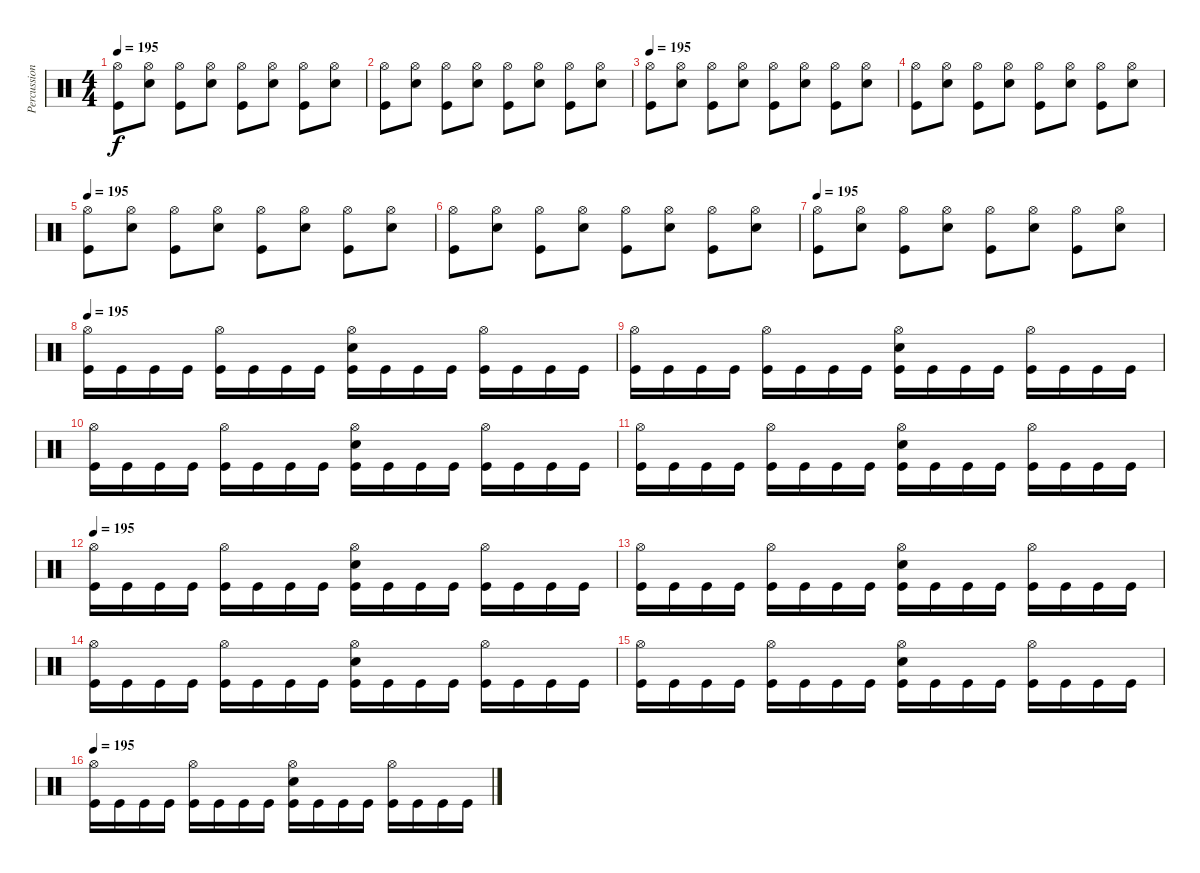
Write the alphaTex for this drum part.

\track ("Percussion" "Percussion") {instrument percussion}
\staff {score}
\articulation defaults
\ts (4 4)
\tempo 195
\clef neutral
\ks c
("Hi-Hat (open)" "Kick (hit)").8{dy f} ("Hi-Hat (open)" "Electric Snare (hit)").8 ("Hi-Hat (open)" "Kick (hit)").8 ("Hi-Hat (open)" "Electric Snare (hit)").8 ("Hi-Hat (open)" "Kick (hit)").8 ("Hi-Hat (open)" "Electric Snare (hit)").8 ("Hi-Hat (open)" "Kick (hit)").8 ("Hi-Hat (open)" "Electric Snare (hit)").8 |
("Hi-Hat (open)" "Kick (hit)").8 ("Hi-Hat (open)" "Electric Snare (hit)").8 ("Hi-Hat (open)" "Kick (hit)").8 ("Hi-Hat (open)" "Electric Snare (hit)").8 ("Hi-Hat (open)" "Kick (hit)").8 ("Hi-Hat (open)" "Electric Snare (hit)").8 ("Hi-Hat (open)" "Kick (hit)").8 ("Hi-Hat (open)" "Electric Snare (hit)").8 |
\tempo 195
("Hi-Hat (open)" "Kick (hit)").8 ("Hi-Hat (open)" "Electric Snare (hit)").8 ("Hi-Hat (open)" "Kick (hit)").8 ("Hi-Hat (open)" "Electric Snare (hit)").8 ("Hi-Hat (open)" "Kick (hit)").8 ("Hi-Hat (open)" "Electric Snare (hit)").8 ("Hi-Hat (open)" "Kick (hit)").8 ("Hi-Hat (open)" "Electric Snare (hit)").8 |
("Hi-Hat (open)" "Kick (hit)").8 ("Hi-Hat (open)" "Electric Snare (hit)").8 ("Hi-Hat (open)" "Kick (hit)").8 ("Hi-Hat (open)" "Electric Snare (hit)").8 ("Hi-Hat (open)" "Kick (hit)").8 ("Hi-Hat (open)" "Electric Snare (hit)").8 ("Hi-Hat (open)" "Kick (hit)").8 ("Hi-Hat (open)" "Electric Snare (hit)").8 |
\tempo 195
("Hi-Hat (open)" "Kick (hit)").8 ("Hi-Hat (open)" "Electric Snare (hit)").8 ("Hi-Hat (open)" "Kick (hit)").8 ("Hi-Hat (open)" "Electric Snare (hit)").8 ("Hi-Hat (open)" "Kick (hit)").8 ("Hi-Hat (open)" "Electric Snare (hit)").8 ("Hi-Hat (open)" "Kick (hit)").8 ("Hi-Hat (open)" "Electric Snare (hit)").8 |
("Hi-Hat (open)" "Kick (hit)").8 ("Hi-Hat (open)" "Electric Snare (hit)").8 ("Hi-Hat (open)" "Kick (hit)").8 ("Hi-Hat (open)" "Electric Snare (hit)").8 ("Hi-Hat (open)" "Kick (hit)").8 ("Hi-Hat (open)" "Electric Snare (hit)").8 ("Hi-Hat (open)" "Kick (hit)").8 ("Hi-Hat (open)" "Electric Snare (hit)").8 |
\tempo 195
("Hi-Hat (open)" "Kick (hit)").8 ("Hi-Hat (open)" "Electric Snare (hit)").8 ("Hi-Hat (open)" "Kick (hit)").8 ("Hi-Hat (open)" "Electric Snare (hit)").8 ("Hi-Hat (open)" "Kick (hit)").8 ("Hi-Hat (open)" "Electric Snare (hit)").8 ("Hi-Hat (open)" "Kick (hit)").8 ("Hi-Hat (open)" "Electric Snare (hit)").8 |
\tempo 195
("Hi-Hat (open)" "Kick (hit)").16 "Kick (hit)".16 "Kick (hit)".16 "Kick (hit)".16 ("Hi-Hat (open)" "Kick (hit)").16 "Kick (hit)".16 "Kick (hit)".16 "Kick (hit)".16 ("Hi-Hat (open)" "Electric Snare (hit)" "Kick (hit)").16 "Kick (hit)".16 "Kick (hit)".16 "Kick (hit)".16 ("Hi-Hat (open)" "Kick (hit)").16 "Kick (hit)".16 "Kick (hit)".16 "Kick (hit)".16 |
("Hi-Hat (open)" "Kick (hit)").16 "Kick (hit)".16 "Kick (hit)".16 "Kick (hit)".16 ("Hi-Hat (open)" "Kick (hit)").16 "Kick (hit)".16 "Kick (hit)".16 "Kick (hit)".16 ("Hi-Hat (open)" "Electric Snare (hit)" "Kick (hit)").16 "Kick (hit)".16 "Kick (hit)".16 "Kick (hit)".16 ("Hi-Hat (open)" "Kick (hit)").16 "Kick (hit)".16 "Kick (hit)".16 "Kick (hit)".16 |
("Hi-Hat (open)" "Kick (hit)").16 "Kick (hit)".16 "Kick (hit)".16 "Kick (hit)".16 ("Hi-Hat (open)" "Kick (hit)").16 "Kick (hit)".16 "Kick (hit)".16 "Kick (hit)".16 ("Hi-Hat (open)" "Electric Snare (hit)" "Kick (hit)").16 "Kick (hit)".16 "Kick (hit)".16 "Kick (hit)".16 ("Hi-Hat (open)" "Kick (hit)").16 "Kick (hit)".16 "Kick (hit)".16 "Kick (hit)".16 |
("Hi-Hat (open)" "Kick (hit)").16 "Kick (hit)".16 "Kick (hit)".16 "Kick (hit)".16 ("Hi-Hat (open)" "Kick (hit)").16 "Kick (hit)".16 "Kick (hit)".16 "Kick (hit)".16 ("Hi-Hat (open)" "Electric Snare (hit)" "Kick (hit)").16 "Kick (hit)".16 "Kick (hit)".16 "Kick (hit)".16 ("Hi-Hat (open)" "Kick (hit)").16 "Kick (hit)".16 "Kick (hit)".16 "Kick (hit)".16 |
\tempo 195
("Hi-Hat (open)" "Kick (hit)").16 "Kick (hit)".16 "Kick (hit)".16 "Kick (hit)".16 ("Hi-Hat (open)" "Kick (hit)").16 "Kick (hit)".16 "Kick (hit)".16 "Kick (hit)".16 ("Hi-Hat (open)" "Electric Snare (hit)" "Kick (hit)").16 "Kick (hit)".16 "Kick (hit)".16 "Kick (hit)".16 ("Hi-Hat (open)" "Kick (hit)").16 "Kick (hit)".16 "Kick (hit)".16 "Kick (hit)".16 |
("Hi-Hat (open)" "Kick (hit)").16 "Kick (hit)".16 "Kick (hit)".16 "Kick (hit)".16 ("Hi-Hat (open)" "Kick (hit)").16 "Kick (hit)".16 "Kick (hit)".16 "Kick (hit)".16 ("Hi-Hat (open)" "Electric Snare (hit)" "Kick (hit)").16 "Kick (hit)".16 "Kick (hit)".16 "Kick (hit)".16 ("Hi-Hat (open)" "Kick (hit)").16 "Kick (hit)".16 "Kick (hit)".16 "Kick (hit)".16 |
("Hi-Hat (open)" "Kick (hit)").16 "Kick (hit)".16 "Kick (hit)".16 "Kick (hit)".16 ("Hi-Hat (open)" "Kick (hit)").16 "Kick (hit)".16 "Kick (hit)".16 "Kick (hit)".16 ("Hi-Hat (open)" "Electric Snare (hit)" "Kick (hit)").16 "Kick (hit)".16 "Kick (hit)".16 "Kick (hit)".16 ("Hi-Hat (open)" "Kick (hit)").16 "Kick (hit)".16 "Kick (hit)".16 "Kick (hit)".16 |
("Hi-Hat (open)" "Kick (hit)").16 "Kick (hit)".16 "Kick (hit)".16 "Kick (hit)".16 ("Hi-Hat (open)" "Kick (hit)").16 "Kick (hit)".16 "Kick (hit)".16 "Kick (hit)".16 ("Hi-Hat (open)" "Electric Snare (hit)" "Kick (hit)").16 "Kick (hit)".16 "Kick (hit)".16 "Kick (hit)".16 ("Hi-Hat (open)" "Kick (hit)").16 "Kick (hit)".16 "Kick (hit)".16 "Kick (hit)".16 |
\tempo 195
("Hi-Hat (open)" "Kick (hit)").16 "Kick (hit)".16 "Kick (hit)".16 "Kick (hit)".16 ("Hi-Hat (open)" "Kick (hit)").16 "Kick (hit)".16 "Kick (hit)".16 "Kick (hit)".16 ("Hi-Hat (open)" "Electric Snare (hit)" "Kick (hit)").16 "Kick (hit)".16 "Kick (hit)".16 "Kick (hit)".16 ("Hi-Hat (open)" "Kick (hit)").16 "Kick (hit)".16 "Kick (hit)".16 "Kick (hit)".16
